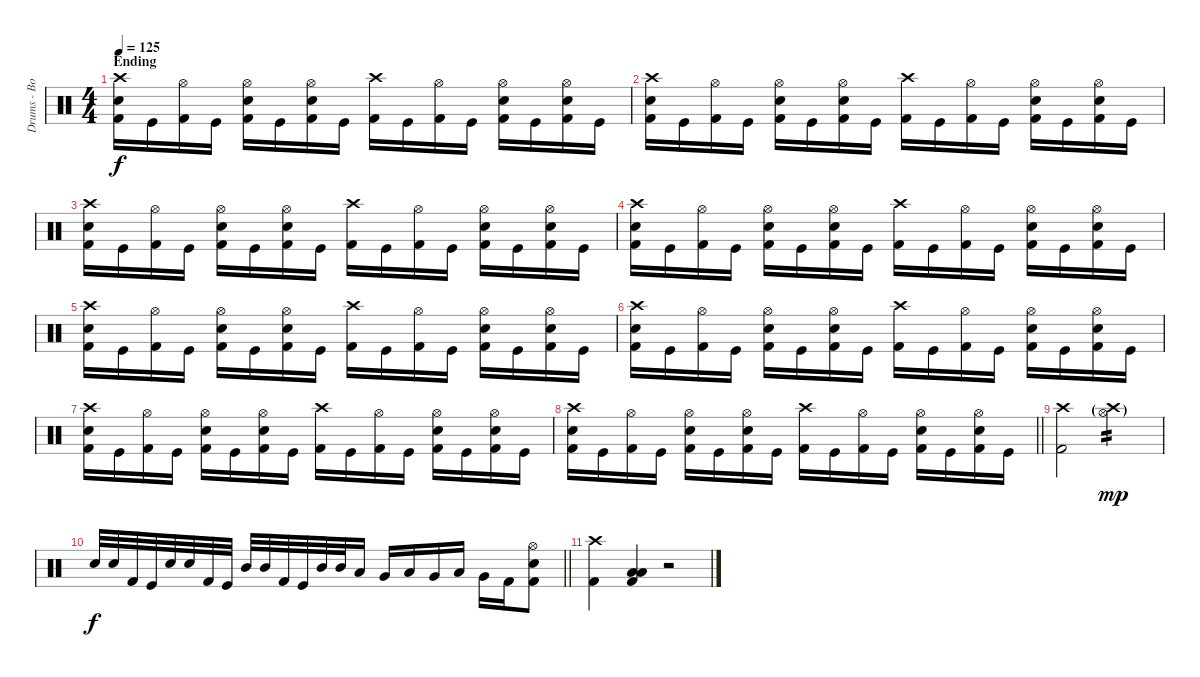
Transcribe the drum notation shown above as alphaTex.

\track ("Drums - Bobby Schottkowski" "Drums - Bo") {instrument percussion}
\staff {score}
\articulation defaults
\ts (4 4)
\section ("" "Ending")
\tempo 125
\clef neutral
\ks c
("Kick (hit) 2" "Snare (hit) 2" "Crash high (hit)").16{dy f} "Kick (hit)".16 ("Kick (hit) 2" "Hi-Hat (open)").16 "Kick (hit)".16 ("Kick (hit) 2" "Snare (hit) 2" "Hi-Hat (open)").16 "Kick (hit)".16 ("Kick (hit) 2" "Snare (hit) 2" "Hi-Hat (open)").16 "Kick (hit)".16 ("Kick (hit) 2" "Crash high (hit)").16 "Kick (hit)".16 ("Kick (hit) 2" "Hi-Hat (open)").16 "Kick (hit)".16 ("Kick (hit) 2" "Snare (hit) 2" "Hi-Hat (open)").16 "Kick (hit)".16 ("Kick (hit) 2" "Snare (hit) 2" "Hi-Hat (open)").16 "Kick (hit)".16 |
("Kick (hit) 2" "Snare (hit) 2" "Crash high (hit)").16 "Kick (hit)".16 ("Kick (hit) 2" "Hi-Hat (open)").16 "Kick (hit)".16 ("Kick (hit) 2" "Snare (hit) 2" "Hi-Hat (open)").16 "Kick (hit)".16 ("Kick (hit) 2" "Snare (hit) 2" "Hi-Hat (open)").16 "Kick (hit)".16 ("Kick (hit) 2" "Crash high (hit)").16 "Kick (hit)".16 ("Kick (hit) 2" "Hi-Hat (open)").16 "Kick (hit)".16 ("Kick (hit) 2" "Snare (hit) 2" "Hi-Hat (open)").16 "Kick (hit)".16 ("Kick (hit) 2" "Snare (hit) 2" "Hi-Hat (open)").16 "Kick (hit)".16 |
("Kick (hit) 2" "Snare (hit) 2" "Crash high (hit)").16 "Kick (hit)".16 ("Kick (hit) 2" "Hi-Hat (open)").16 "Kick (hit)".16 ("Kick (hit) 2" "Snare (hit) 2" "Hi-Hat (open)").16 "Kick (hit)".16 ("Kick (hit) 2" "Snare (hit) 2" "Hi-Hat (open)").16 "Kick (hit)".16 ("Kick (hit) 2" "Crash high (hit)").16 "Kick (hit)".16 ("Kick (hit) 2" "Hi-Hat (open)").16 "Kick (hit)".16 ("Kick (hit) 2" "Snare (hit) 2" "Hi-Hat (open)").16 "Kick (hit)".16 ("Kick (hit) 2" "Snare (hit) 2" "Hi-Hat (open)").16 "Kick (hit)".16 |
("Kick (hit) 2" "Snare (hit) 2" "Crash high (hit)").16 "Kick (hit)".16 ("Kick (hit) 2" "Hi-Hat (open)").16 "Kick (hit)".16 ("Kick (hit) 2" "Snare (hit) 2" "Hi-Hat (open)").16 "Kick (hit)".16 ("Kick (hit) 2" "Snare (hit) 2" "Hi-Hat (open)").16 "Kick (hit)".16 ("Kick (hit) 2" "Crash high (hit)").16 "Kick (hit)".16 ("Kick (hit) 2" "Hi-Hat (open)").16 "Kick (hit)".16 ("Kick (hit) 2" "Snare (hit) 2" "Hi-Hat (open)").16 "Kick (hit)".16 ("Kick (hit) 2" "Snare (hit) 2" "Hi-Hat (open)").16 "Kick (hit)".16 |
("Kick (hit) 2" "Snare (hit) 2" "Crash high (hit)").16 "Kick (hit)".16 ("Kick (hit) 2" "Hi-Hat (open)").16 "Kick (hit)".16 ("Kick (hit) 2" "Snare (hit) 2" "Hi-Hat (open)").16 "Kick (hit)".16 ("Kick (hit) 2" "Snare (hit) 2" "Hi-Hat (open)").16 "Kick (hit)".16 ("Kick (hit) 2" "Crash high (hit)").16 "Kick (hit)".16 ("Kick (hit) 2" "Hi-Hat (open)").16 "Kick (hit)".16 ("Kick (hit) 2" "Snare (hit) 2" "Hi-Hat (open)").16 "Kick (hit)".16 ("Kick (hit) 2" "Snare (hit) 2" "Hi-Hat (open)").16 "Kick (hit)".16 |
("Kick (hit) 2" "Snare (hit) 2" "Crash high (hit)").16 "Kick (hit)".16 ("Kick (hit) 2" "Hi-Hat (open)").16 "Kick (hit)".16 ("Kick (hit) 2" "Snare (hit) 2" "Hi-Hat (open)").16 "Kick (hit)".16 ("Kick (hit) 2" "Snare (hit) 2" "Hi-Hat (open)").16 "Kick (hit)".16 ("Kick (hit) 2" "Crash high (hit)").16 "Kick (hit)".16 ("Kick (hit) 2" "Hi-Hat (open)").16 "Kick (hit)".16 ("Kick (hit) 2" "Snare (hit) 2" "Hi-Hat (open)").16 "Kick (hit)".16 ("Kick (hit) 2" "Snare (hit) 2" "Hi-Hat (open)").16 "Kick (hit)".16 |
("Kick (hit) 2" "Snare (hit) 2" "Crash high (hit)").16 "Kick (hit)".16 ("Kick (hit) 2" "Hi-Hat (open)").16 "Kick (hit)".16 ("Kick (hit) 2" "Snare (hit) 2" "Hi-Hat (open)").16 "Kick (hit)".16 ("Kick (hit) 2" "Snare (hit) 2" "Hi-Hat (open)").16 "Kick (hit)".16 ("Kick (hit) 2" "Crash high (hit)").16 "Kick (hit)".16 ("Kick (hit) 2" "Hi-Hat (open)").16 "Kick (hit)".16 ("Kick (hit) 2" "Snare (hit) 2" "Hi-Hat (open)").16 "Kick (hit)".16 ("Kick (hit) 2" "Snare (hit) 2" "Hi-Hat (open)").16 "Kick (hit)".16 |
\barLineRight lightlight
("Kick (hit) 2" "Snare (hit) 2" "Crash high (hit)").16 "Kick (hit)".16 ("Kick (hit) 2" "Hi-Hat (open)").16 "Kick (hit)".16 ("Kick (hit) 2" "Snare (hit) 2" "Hi-Hat (open)").16 "Kick (hit)".16 ("Kick (hit) 2" "Snare (hit) 2" "Hi-Hat (open)").16 "Kick (hit)".16 ("Kick (hit) 2" "Crash high (hit)").16 "Kick (hit)".16 ("Kick (hit) 2" "Hi-Hat (open)").16 "Kick (hit)".16 ("Kick (hit) 2" "Snare (hit) 2" "Hi-Hat (open)").16 "Kick (hit)".16 ("Kick (hit) 2" "Snare (hit) 2" "Hi-Hat (open)").16 "Kick (hit)".16 |
("Kick (hit) 2" "Crash high (hit)").2 ("Crash high (hit)"{g} "Hi-Hat (open)"{g}).2{tp 2 dy mp} |
\barLineRight lightlight "Snare (hit) 2".32{dy f} "Snare (hit) 2".32 "Kick (hit) 2".32 "Kick (hit)".32 "Snare (hit) 2".32 "Snare (hit) 2".32 "Kick (hit) 2".32 "Kick (hit)".32 "Mid Tom (hit)".32 "Mid Tom (hit)".32 "Kick (hit) 2".32 "Kick (hit)".32 "Mid Tom (hit)".32 "Mid Tom (hit)".32 "Low Tom (hit)".16 "Very Low Tom (hit)".16 "Low Tom (hit)".16 "Very Low Tom (hit)".16 "Low Floor Tom (hit)".16 "Very Low Tom (hit)".16 "Kick (hit) 2".16
("Kick (hit) 2" "Snare (hit) 2" "Hi-Hat (open)").8 |
("Kick (hit) 2" "Crash high (hit)").4 ("Kick (hit) 2" "Low Floor Tom (hit)" "Low Tom (hit)").4{bd 480} r.2
